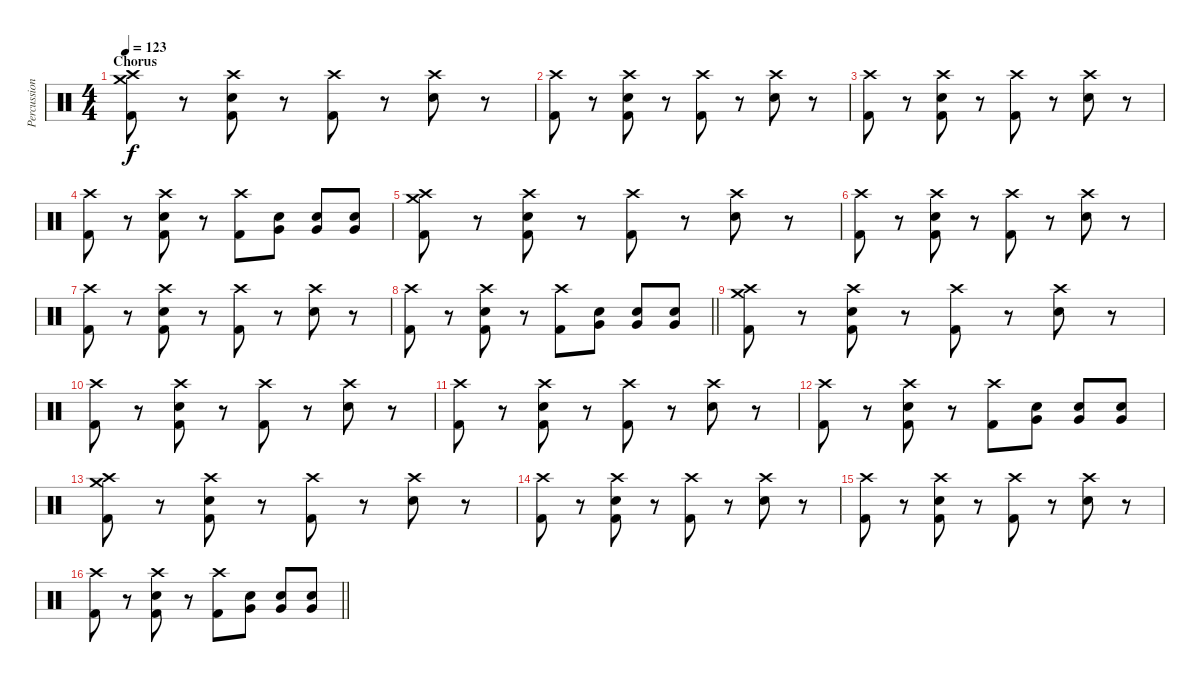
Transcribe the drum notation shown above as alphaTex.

\track ("Percussion" "Percussion") {instrument percussion}
\staff {score}
\articulation defaults
\ts (4 4)
\section ("" "Chorus")
\tempo 123
\clef neutral
\ks c
("Crash medium (hit)" "Crash high (hit)" "Kick (hit) 2").8{dy f} r.8 ("Crash high (hit)" "Snare (hit) 2" "Kick (hit) 2").8 r.8 ("Crash high (hit)" "Kick (hit) 2").8 r.8 ("Crash high (hit)" "Snare (hit) 2").8 r.8 |
("Crash high (hit)" "Kick (hit) 2").8 r.8 ("Crash high (hit)" "Snare (hit) 2" "Kick (hit) 2").8 r.8 ("Crash high (hit)" "Kick (hit) 2").8 r.8 ("Crash high (hit)" "Snare (hit) 2").8 r.8 |
("Crash high (hit)" "Kick (hit) 2").8 r.8 ("Crash high (hit)" "Snare (hit) 2" "Kick (hit) 2").8 r.8 ("Crash high (hit)" "Kick (hit) 2").8 r.8 ("Crash high (hit)" "Snare (hit) 2").8 r.8 |
("Crash high (hit)" "Kick (hit) 2").8 r.8 ("Crash high (hit)" "Snare (hit) 2" "Kick (hit) 2").8 r.8 ("Crash high (hit)" "Kick (hit) 2").8 ("Very Low Tom (hit)" "Snare (hit) 2").8 ("Very Low Tom (hit)" "Snare (hit) 2").8 ("Very Low Tom (hit)" "Snare (hit) 2").8 |
("Crash medium (hit)" "Crash high (hit)" "Kick (hit) 2").8 r.8 ("Crash high (hit)" "Snare (hit) 2" "Kick (hit) 2").8 r.8 ("Crash high (hit)" "Kick (hit) 2").8 r.8 ("Crash high (hit)" "Snare (hit) 2").8 r.8 |
("Crash high (hit)" "Kick (hit) 2").8 r.8 ("Crash high (hit)" "Snare (hit) 2" "Kick (hit) 2").8 r.8 ("Crash high (hit)" "Kick (hit) 2").8 r.8 ("Crash high (hit)" "Snare (hit) 2").8 r.8 |
("Crash high (hit)" "Kick (hit) 2").8 r.8 ("Crash high (hit)" "Snare (hit) 2" "Kick (hit) 2").8 r.8 ("Crash high (hit)" "Kick (hit) 2").8 r.8 ("Crash high (hit)" "Snare (hit) 2").8 r.8 |
\barLineRight lightlight
("Crash high (hit)" "Kick (hit) 2").8 r.8 ("Crash high (hit)" "Snare (hit) 2" "Kick (hit) 2").8 r.8 ("Crash high (hit)" "Kick (hit) 2").8 ("Very Low Tom (hit)" "Snare (hit) 2").8 ("Very Low Tom (hit)" "Snare (hit) 2").8 ("Very Low Tom (hit)" "Snare (hit) 2").8 |
("Crash medium (hit)" "Crash high (hit)" "Kick (hit) 2").8 r.8 ("Crash high (hit)" "Snare (hit) 2" "Kick (hit) 2").8 r.8 ("Crash high (hit)" "Kick (hit) 2").8 r.8 ("Crash high (hit)" "Snare (hit) 2").8 r.8 |
("Crash high (hit)" "Kick (hit) 2").8 r.8 ("Crash high (hit)" "Snare (hit) 2" "Kick (hit) 2").8 r.8 ("Crash high (hit)" "Kick (hit) 2").8 r.8 ("Crash high (hit)" "Snare (hit) 2").8 r.8 |
("Crash high (hit)" "Kick (hit) 2").8 r.8 ("Crash high (hit)" "Snare (hit) 2" "Kick (hit) 2").8 r.8 ("Crash high (hit)" "Kick (hit) 2").8 r.8 ("Crash high (hit)" "Snare (hit) 2").8 r.8 |
("Crash high (hit)" "Kick (hit) 2").8 r.8 ("Crash high (hit)" "Snare (hit) 2" "Kick (hit) 2").8 r.8 ("Crash high (hit)" "Kick (hit) 2").8 ("Very Low Tom (hit)" "Snare (hit) 2").8 ("Very Low Tom (hit)" "Snare (hit) 2").8 ("Very Low Tom (hit)" "Snare (hit) 2").8 |
("Crash medium (hit)" "Crash high (hit)" "Kick (hit) 2").8 r.8 ("Crash high (hit)" "Snare (hit) 2" "Kick (hit) 2").8 r.8 ("Crash high (hit)" "Kick (hit) 2").8 r.8 ("Crash high (hit)" "Snare (hit) 2").8 r.8 |
("Crash high (hit)" "Kick (hit) 2").8 r.8 ("Crash high (hit)" "Snare (hit) 2" "Kick (hit) 2").8 r.8 ("Crash high (hit)" "Kick (hit) 2").8 r.8 ("Crash high (hit)" "Snare (hit) 2").8 r.8 |
("Crash high (hit)" "Kick (hit) 2").8 r.8 ("Crash high (hit)" "Snare (hit) 2" "Kick (hit) 2").8 r.8 ("Crash high (hit)" "Kick (hit) 2").8 r.8 ("Crash high (hit)" "Snare (hit) 2").8 r.8 |
\barLineRight lightlight
("Crash high (hit)" "Kick (hit) 2").8 r.8 ("Crash high (hit)" "Snare (hit) 2" "Kick (hit) 2").8 r.8 ("Crash high (hit)" "Kick (hit) 2").8 ("Very Low Tom (hit)" "Snare (hit) 2").8 ("Very Low Tom (hit)" "Snare (hit) 2").8 ("Very Low Tom (hit)" "Snare (hit) 2").8
